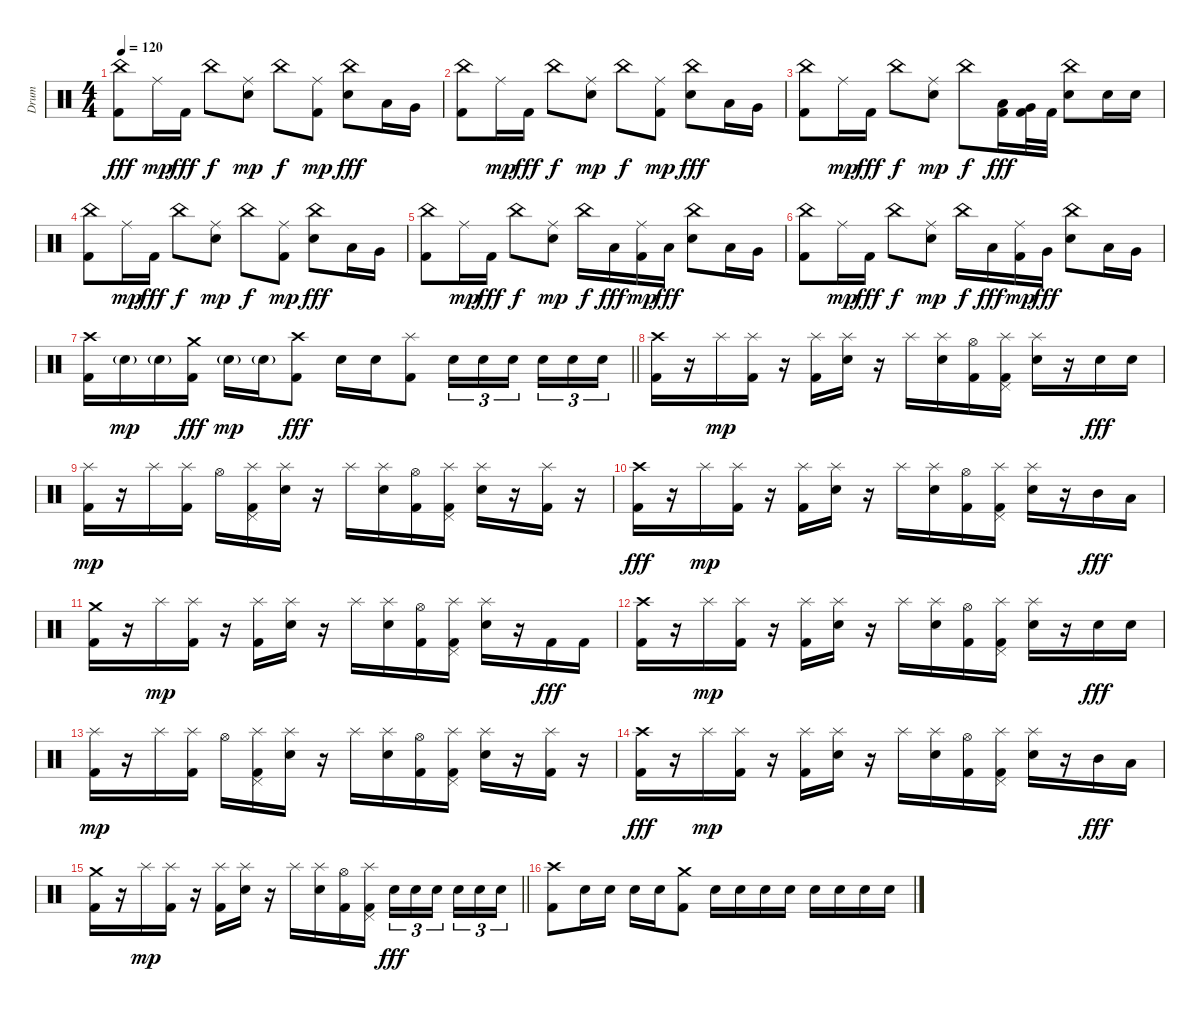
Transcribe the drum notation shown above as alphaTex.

\track ("Drum" "Drum") {instrument percussion}
\staff {score}
\articulation defaults
\ts (4 4)
\tempo 120
\clef neutral
\ks c
("Kick (hit) 2" "China (hit)").8{dy fff} "Ride (middle)".16{dy mp} "Kick (hit) 2".16{dy fff} "China (hit)".8{dy f} ("Electric Snare (hit)" "Ride (middle)").8{dy mp} "China (hit)".8{dy f} ("Kick (hit) 2" "Ride (middle)").8{dy mp} ("Electric Snare (hit)" "China (hit)").8{dy fff} "Low Tom (hit)".16 "Very Low Tom (hit)".16 |
("Kick (hit) 2" "China (hit)").8 "Ride (middle)".16{dy mp} "Kick (hit) 2".16{dy fff} "China (hit)".8{dy f} ("Electric Snare (hit)" "Ride (middle)").8{dy mp} "China (hit)".8{dy f} ("Kick (hit) 2" "Ride (middle)").8{dy mp} ("Electric Snare (hit)" "China (hit)").8{dy fff} "Low Tom (hit)".16 "Very Low Tom (hit)".16 |
("Kick (hit) 2" "China (hit)").8 "Ride (middle)".16{dy mp} "Kick (hit) 2".16{dy fff} "China (hit)".8{dy f} ("Electric Snare (hit)" "Ride (middle)").8{dy mp} "China (hit)".8{dy f} ("Kick (hit) 2" "Low Tom (hit)").16{dy fff} ("Kick (hit) 2" "Very Low Tom (hit)").32 "Kick (hit) 2".32 ("Electric Snare (hit)" "China (hit)").8 "Electric Snare (hit)".16 "Electric Snare (hit)".16 |
("Kick (hit) 2" "China (hit)").8 "Ride (middle)".16{dy mp} "Kick (hit) 2".16{dy fff} "China (hit)".8{dy f} ("Electric Snare (hit)" "Ride (middle)").8{dy mp} "China (hit)".8{dy f} ("Kick (hit) 2" "Ride (middle)").8{dy mp} ("Electric Snare (hit)" "China (hit)").8{dy fff} "Low Tom (hit)".16 "Very Low Tom (hit)".16 |
("Kick (hit) 2" "China (hit)").8 "Ride (middle)".16{dy mp} "Kick (hit) 2".16{dy fff} "China (hit)".8{dy f} ("Electric Snare (hit)" "Ride (middle)").8{dy mp} "China (hit)".16{dy f} "Low Tom (hit)".16{dy fff} ("Kick (hit) 2" "Ride (middle)").16{dy mp} "Low Tom (hit)".16{dy fff} ("Electric Snare (hit)" "China (hit)").8 "Low Tom (hit)".16 "Very Low Tom (hit)".16 |
("Kick (hit) 2" "China (hit)").8 "Ride (middle)".16{dy mp} "Kick (hit) 2".16{dy fff} "China (hit)".8{dy f} ("Electric Snare (hit)" "Ride (middle)").8{dy mp} "China (hit)".16{dy f} "Low Tom (hit)".16{dy fff} ("Kick (hit) 2" "Ride (middle)").16{dy mp} "Very Low Tom (hit)".16{dy fff} ("Electric Snare (hit)" "China (hit)").8 "Low Tom (hit)".16 "Very Low Tom (hit)".16 |
\barLineRight lightlight
("Kick (hit) 2" "Crash high (hit)").16 "Electric Snare (hit)"{g}.16{dy mp} "Electric Snare (hit)"{g}.16 ("Kick (hit) 2" "Crash medium (hit)").16{dy fff} "Electric Snare (hit)"{g}.16{dy mp} "Electric Snare (hit)"{g}.16 ("Kick (hit) 2" "Crash high (hit)").8{dy fff} "Electric Snare (hit)".16 "Electric Snare (hit)".16 ("Kick (hit) 2" "Splash (hit)").8 "Electric Snare (hit)".16{tu (3 2)} "Electric Snare (hit)".16{tu (3 2)} "Electric Snare (hit)".16{tu (3 2) beam splitsecondary} "Electric Snare (hit)".16{tu (3 2)} "Electric Snare (hit)".16{tu (3 2)} "Electric Snare (hit)".16{tu (3 2)} |
("Kick (hit) 2" "Crash high (hit)").16 r.16 "Splash (hit)".16{dy mp} ("Kick (hit) 2" "Splash (hit)").16 r.16 ("Kick (hit) 2" "Splash (hit)").16 ("Electric Snare (hit)" "Splash (hit)").16 r.16 "Splash (hit)".16 ("Electric Snare (hit)" "Splash (hit)").16 ("Kick (hit) 2" "Hi-Hat (open)").16 ("Kick (hit) 2" "Splash (hit)" "Pedal Hi-Hat (hit)").16 ("Electric Snare (hit)" "Splash (hit)").16 r.16 "Electric Snare (hit)".16{dy fff} "Electric Snare (hit)".16 |
("Kick (hit) 2" "Splash (hit)").16{dy mp} r.16 "Splash (hit)".16 ("Kick (hit) 2" "Splash (hit)").16 "Hi-Hat (open)".16 ("Kick (hit) 2" "Splash (hit)" "Pedal Hi-Hat (hit)").16 ("Electric Snare (hit)" "Splash (hit)").16 r.16 "Splash (hit)".16 ("Electric Snare (hit)" "Splash (hit)").16 ("Kick (hit) 2" "Hi-Hat (open)").16 ("Kick (hit) 2" "Splash (hit)" "Pedal Hi-Hat (hit)").16 ("Electric Snare (hit)" "Splash (hit)").16 r.16 ("Kick (hit) 2" "Splash (hit)").16 r.16 |
("Kick (hit) 2" "Crash high (hit)").16{dy fff} r.16 "Splash (hit)".16{dy mp} ("Kick (hit) 2" "Splash (hit)").16 r.16 ("Kick (hit) 2" "Splash (hit)").16 ("Electric Snare (hit)" "Splash (hit)").16 r.16 "Splash (hit)".16 ("Electric Snare (hit)" "Splash (hit)").16 ("Kick (hit) 2" "Hi-Hat (open)").16 ("Kick (hit) 2" "Splash (hit)" "Pedal Hi-Hat (hit)").16 ("Electric Snare (hit)" "Splash (hit)").16 r.16 "Mid Tom (hit)".16{dy fff} "Low Tom (hit)".16 |
("Kick (hit) 2" "Crash medium (hit)").16 r.16 "Splash (hit)".16{dy mp} ("Kick (hit) 2" "Splash (hit)").16 r.16 ("Kick (hit) 2" "Splash (hit)").16 ("Electric Snare (hit)" "Splash (hit)").16 r.16 "Splash (hit)".16 ("Electric Snare (hit)" "Splash (hit)").16 ("Kick (hit) 2" "Hi-Hat (open)").16 ("Kick (hit) 2" "Splash (hit)" "Pedal Hi-Hat (hit)").16 ("Electric Snare (hit)" "Splash (hit)").16 r.16 "Kick (hit) 2".16{dy fff} "Kick (hit) 2".16 |
("Kick (hit) 2" "Crash high (hit)").16 r.16 "Splash (hit)".16{dy mp} ("Kick (hit) 2" "Splash (hit)").16 r.16 ("Kick (hit) 2" "Splash (hit)").16 ("Electric Snare (hit)" "Splash (hit)").16 r.16 "Splash (hit)".16 ("Electric Snare (hit)" "Splash (hit)").16 ("Kick (hit) 2" "Hi-Hat (open)").16 ("Kick (hit) 2" "Splash (hit)" "Pedal Hi-Hat (hit)").16 ("Electric Snare (hit)" "Splash (hit)").16 r.16 "Electric Snare (hit)".16{dy fff} "Electric Snare (hit)".16 |
("Kick (hit) 2" "Splash (hit)").16{dy mp} r.16 "Splash (hit)".16 ("Kick (hit) 2" "Splash (hit)").16 "Hi-Hat (open)".16 ("Kick (hit) 2" "Splash (hit)" "Pedal Hi-Hat (hit)").16 ("Electric Snare (hit)" "Splash (hit)").16 r.16 "Splash (hit)".16 ("Electric Snare (hit)" "Splash (hit)").16 ("Kick (hit) 2" "Hi-Hat (open)").16 ("Kick (hit) 2" "Splash (hit)" "Pedal Hi-Hat (hit)").16 ("Electric Snare (hit)" "Splash (hit)").16 r.16 ("Kick (hit) 2" "Splash (hit)").16 r.16 |
("Kick (hit) 2" "Crash high (hit)").16{dy fff} r.16 "Splash (hit)".16{dy mp} ("Kick (hit) 2" "Splash (hit)").16 r.16 ("Kick (hit) 2" "Splash (hit)").16 ("Electric Snare (hit)" "Splash (hit)").16 r.16 "Splash (hit)".16 ("Electric Snare (hit)" "Splash (hit)").16 ("Kick (hit) 2" "Hi-Hat (open)").16 ("Kick (hit) 2" "Splash (hit)" "Pedal Hi-Hat (hit)").16 ("Electric Snare (hit)" "Splash (hit)").16 r.16 "Mid Tom (hit)".16{dy fff} "Low Tom (hit)".16 |
\barLineRight lightlight
("Kick (hit) 2" "Crash medium (hit)").16 r.16 "Splash (hit)".16{dy mp} ("Kick (hit) 2" "Splash (hit)").16 r.16 ("Kick (hit) 2" "Splash (hit)").16 ("Electric Snare (hit)" "Splash (hit)").16 r.16 "Splash (hit)".16 ("Electric Snare (hit)" "Splash (hit)").16 ("Kick (hit) 2" "Hi-Hat (open)").16 ("Kick (hit) 2" "Splash (hit)" "Pedal Hi-Hat (hit)").16 "Electric Snare (hit)".16{tu (3 2) dy fff} "Electric Snare (hit)".16{tu (3 2)} "Electric Snare (hit)".16{tu (3 2) beam splitsecondary} "Electric Snare (hit)".16{tu (3 2)} "Electric Snare (hit)".16{tu (3 2)} "Electric Snare (hit)".16{tu (3 2)} |
("Kick (hit) 2" "Crash high (hit)").8 "Electric Snare (hit)".16 "Electric Snare (hit)".16 "Electric Snare (hit)".16 "Electric Snare (hit)".16 ("Kick (hit) 2" "Crash medium (hit)").8 "Electric Snare (hit)".16 "Electric Snare (hit)".16 "Electric Snare (hit)".16 "Electric Snare (hit)".16 "Electric Snare (hit)".16 "Electric Snare (hit)".16 "Electric Snare (hit)".16 "Electric Snare (hit)".16
